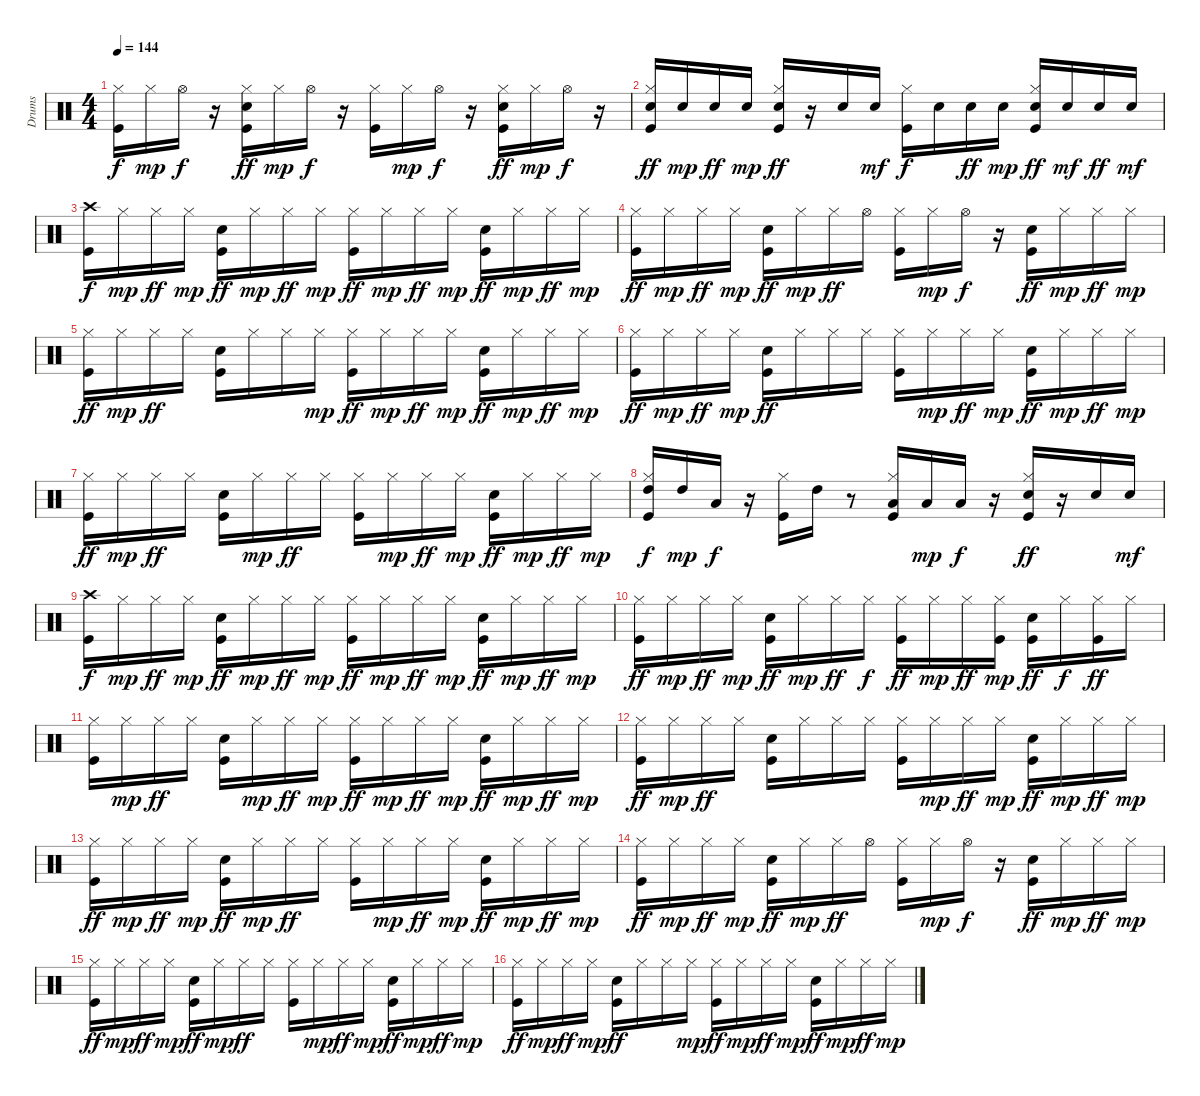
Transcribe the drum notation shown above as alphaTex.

\track ("Drums" "Drums") {instrument percussion}
\staff {score}
\articulation defaults
\ts (4 4)
\tempo 144
\clef neutral
\ks c
("Kick (hit)" "Hi-Hat (closed)").16{dy f} "Hi-Hat (closed)".16{dy mp} "Hi-Hat (open)".16{dy f} r.16 ("Kick (hit)" "Snare (hit) 2" "Hi-Hat (closed)").16{dy ff} "Hi-Hat (closed)".16{dy mp} "Hi-Hat (open)".16{dy f} r.16 ("Kick (hit)" "Hi-Hat (closed)").16 "Hi-Hat (closed)".16{dy mp} "Hi-Hat (open)".16{dy f} r.16 ("Kick (hit)" "Snare (hit) 2" "Hi-Hat (closed)").16{dy ff} "Hi-Hat (closed)".16{dy mp} "Hi-Hat (open)".16{dy f} r.16 |
("Kick (hit)" "Snare (hit) 2" "Hi-Hat (closed)").16{dy ff} "Snare (hit) 2".16{dy mp} "Snare (hit) 2".16{dy ff} "Snare (hit) 2".16{dy mp} ("Kick (hit)" "Snare (hit) 2" "Hi-Hat (closed)").16{dy ff} r.16 "Snare (hit) 2".16 "Snare (hit) 2".16{dy mf} ("Kick (hit)" "Hi-Hat (closed)").16{dy f} "Snare (hit) 2".16 "Snare (hit) 2".16{dy ff} "Snare (hit) 2".16{dy mp} ("Kick (hit)" "Snare (hit) 2" "Hi-Hat (closed)").16{dy ff} "Snare (hit) 2".16{dy mf} "Snare (hit) 2".16{dy ff} "Snare (hit) 2".16{dy mf} |
("Kick (hit)" "Crash high (hit)").16{dy f} "Hi-Hat (closed)".16{dy mp} "Hi-Hat (closed)".16{dy ff} "Hi-Hat (closed)".16{dy mp} ("Kick (hit)" "Snare (hit) 2").16{dy ff} "Hi-Hat (closed)".16{dy mp} "Hi-Hat (closed)".16{dy ff} "Hi-Hat (closed)".16{dy mp} ("Kick (hit)" "Hi-Hat (closed)").16{dy ff} "Hi-Hat (closed)".16{dy mp} "Hi-Hat (closed)".16{dy ff} "Hi-Hat (closed)".16{dy mp} ("Kick (hit)" "Snare (hit) 2").16{dy ff} "Hi-Hat (closed)".16{dy mp} "Hi-Hat (closed)".16{dy ff} "Hi-Hat (closed)".16{dy mp} |
("Kick (hit)" "Hi-Hat (closed)").16{dy ff} "Hi-Hat (closed)".16{dy mp} "Hi-Hat (closed)".16{dy ff} "Hi-Hat (closed)".16{dy mp} ("Kick (hit)" "Snare (hit) 2").16{dy ff} "Hi-Hat (closed)".16{dy mp} "Hi-Hat (closed)".16{dy ff} "Hi-Hat (open)".16 ("Kick (hit)" "Hi-Hat (closed)").16 "Hi-Hat (closed)".16{dy mp} "Hi-Hat (open)".16{dy f} r.16 ("Kick (hit)" "Snare (hit) 2").16{dy ff} "Hi-Hat (closed)".16{dy mp} "Hi-Hat (closed)".16{dy ff} "Hi-Hat (closed)".16{dy mp} |
("Kick (hit)" "Hi-Hat (closed)").16{dy ff} "Hi-Hat (closed)".16{dy mp} "Hi-Hat (closed)".16{dy ff} "Hi-Hat (closed)".16 ("Kick (hit)" "Snare (hit) 2").16 "Hi-Hat (closed)".16 "Hi-Hat (closed)".16 "Hi-Hat (closed)".16{dy mp} ("Kick (hit)" "Hi-Hat (closed)").16{dy ff} "Hi-Hat (closed)".16{dy mp} "Hi-Hat (closed)".16{dy ff} "Hi-Hat (closed)".16{dy mp} ("Kick (hit)" "Snare (hit) 2").16{dy ff} "Hi-Hat (closed)".16{dy mp} "Hi-Hat (closed)".16{dy ff} "Hi-Hat (closed)".16{dy mp} |
("Kick (hit)" "Hi-Hat (closed)").16{dy ff} "Hi-Hat (closed)".16{dy mp} "Hi-Hat (closed)".16{dy ff} "Hi-Hat (closed)".16{dy mp} ("Kick (hit)" "Snare (hit) 2").16{dy ff} "Hi-Hat (closed)".16 "Hi-Hat (closed)".16 "Hi-Hat (closed)".16 ("Kick (hit)" "Hi-Hat (closed)").16 "Hi-Hat (closed)".16{dy mp} "Hi-Hat (closed)".16{dy ff} "Hi-Hat (closed)".16{dy mp} ("Kick (hit)" "Snare (hit) 2").16{dy ff} "Hi-Hat (closed)".16{dy mp} "Hi-Hat (closed)".16{dy ff} "Hi-Hat (closed)".16{dy mp} |
("Kick (hit)" "Hi-Hat (closed)").16{dy ff} "Hi-Hat (closed)".16{dy mp} "Hi-Hat (closed)".16{dy ff} "Hi-Hat (closed)".16 ("Kick (hit)" "Snare (hit) 2").16 "Hi-Hat (closed)".16{dy mp} "Hi-Hat (closed)".16{dy ff} "Hi-Hat (closed)".16 ("Kick (hit)" "Hi-Hat (closed)").16 "Hi-Hat (closed)".16{dy mp} "Hi-Hat (closed)".16{dy ff} "Hi-Hat (closed)".16{dy mp} ("Kick (hit)" "Snare (hit) 2").16{dy ff} "Hi-Hat (closed)".16{dy mp} "Hi-Hat (closed)".16{dy ff} "Hi-Hat (closed)".16{dy mp} |
("Kick (hit)" "Hi-Hat (closed)" "High Tom (hit)").16{dy f} "High Tom (hit)".16{dy mp} "Low Tom (hit)".16{dy f} r.16 ("Kick (hit)" "Hi-Hat (closed)").16 "High Tom (hit)".16 r.8 ("Kick (hit)" "Hi-Hat (closed)" "Low Tom (hit)").16 "Low Tom (hit)".16{dy mp} "Low Floor Tom (hit)".16{dy f} r.16 ("Kick (hit)" "Snare (hit) 2" "Hi-Hat (closed)").16{dy ff} r.16 "Snare (hit) 2".16 "Snare (hit) 2".16{dy mf} |
("Kick (hit)" "Crash high (hit)").16{dy f} "Hi-Hat (closed)".16{dy mp} "Hi-Hat (closed)".16{dy ff} "Hi-Hat (closed)".16{dy mp} ("Kick (hit)" "Snare (hit) 2").16{dy ff} "Hi-Hat (closed)".16{dy mp} "Hi-Hat (closed)".16{dy ff} "Hi-Hat (closed)".16{dy mp} ("Kick (hit)" "Hi-Hat (closed)").16{dy ff} "Hi-Hat (closed)".16{dy mp} "Hi-Hat (closed)".16{dy ff} "Hi-Hat (closed)".16{dy mp} ("Kick (hit)" "Snare (hit) 2").16{dy ff} "Hi-Hat (closed)".16{dy mp} "Hi-Hat (closed)".16{dy ff} "Hi-Hat (closed)".16{dy mp} |
("Kick (hit)" "Hi-Hat (closed)").16{dy ff} "Hi-Hat (closed)".16{dy mp} "Hi-Hat (closed)".16{dy ff} "Hi-Hat (closed)".16{dy mp} ("Kick (hit)" "Snare (hit) 2").16{dy ff} "Hi-Hat (closed)".16{dy mp} "Hi-Hat (closed)".16{dy ff} "Hi-Hat (closed)".16{dy f} ("Kick (hit)" "Hi-Hat (closed)").16{dy ff} "Hi-Hat (closed)".16{dy mp} "Hi-Hat (closed)".16{dy ff} ("Kick (hit)" "Hi-Hat (closed)").16{dy mp} ("Kick (hit)" "Snare (hit) 2").16{dy ff} "Hi-Hat (closed)".16{dy f} ("Kick (hit)" "Hi-Hat (closed)").16{dy ff} "Hi-Hat (closed)".16 |
("Kick (hit)" "Hi-Hat (closed)").16 "Hi-Hat (closed)".16{dy mp} "Hi-Hat (closed)".16{dy ff} "Hi-Hat (closed)".16 ("Kick (hit)" "Snare (hit) 2").16 "Hi-Hat (closed)".16{dy mp} "Hi-Hat (closed)".16{dy ff} "Hi-Hat (closed)".16{dy mp} ("Kick (hit)" "Hi-Hat (closed)").16{dy ff} "Hi-Hat (closed)".16{dy mp} "Hi-Hat (closed)".16{dy ff} "Hi-Hat (closed)".16{dy mp} ("Kick (hit)" "Snare (hit) 2").16{dy ff} "Hi-Hat (closed)".16{dy mp} "Hi-Hat (closed)".16{dy ff} "Hi-Hat (closed)".16{dy mp} |
("Kick (hit)" "Hi-Hat (closed)").16{dy ff} "Hi-Hat (closed)".16{dy mp} "Hi-Hat (closed)".16{dy ff} "Hi-Hat (closed)".16 ("Kick (hit)" "Snare (hit) 2").16 "Hi-Hat (closed)".16 "Hi-Hat (closed)".16 "Hi-Hat (closed)".16 ("Kick (hit)" "Hi-Hat (closed)").16 "Hi-Hat (closed)".16{dy mp} "Hi-Hat (closed)".16{dy ff} "Hi-Hat (closed)".16{dy mp} ("Kick (hit)" "Snare (hit) 2").16{dy ff} "Hi-Hat (closed)".16{dy mp} "Hi-Hat (closed)".16{dy ff} "Hi-Hat (closed)".16{dy mp} |
("Kick (hit)" "Hi-Hat (closed)").16{dy ff} "Hi-Hat (closed)".16{dy mp} "Hi-Hat (closed)".16{dy ff} "Hi-Hat (closed)".16{dy mp} ("Kick (hit)" "Snare (hit) 2").16{dy ff} "Hi-Hat (closed)".16{dy mp} "Hi-Hat (closed)".16{dy ff} "Hi-Hat (closed)".16 ("Kick (hit)" "Hi-Hat (closed)").16 "Hi-Hat (closed)".16{dy mp} "Hi-Hat (closed)".16{dy ff} "Hi-Hat (closed)".16{dy mp} ("Kick (hit)" "Snare (hit) 2").16{dy ff} "Hi-Hat (closed)".16{dy mp} "Hi-Hat (closed)".16{dy ff} "Hi-Hat (closed)".16{dy mp} |
("Kick (hit)" "Hi-Hat (closed)").16{dy ff} "Hi-Hat (closed)".16{dy mp} "Hi-Hat (closed)".16{dy ff} "Hi-Hat (closed)".16{dy mp} ("Kick (hit)" "Snare (hit) 2").16{dy ff} "Hi-Hat (closed)".16{dy mp} "Hi-Hat (closed)".16{dy ff} "Hi-Hat (open)".16 ("Kick (hit)" "Hi-Hat (closed)").16 "Hi-Hat (closed)".16{dy mp} "Hi-Hat (open)".16{dy f} r.16 ("Kick (hit)" "Snare (hit) 2").16{dy ff} "Hi-Hat (closed)".16{dy mp} "Hi-Hat (closed)".16{dy ff} "Hi-Hat (closed)".16{dy mp} |
("Kick (hit)" "Hi-Hat (closed)").16{dy ff} "Hi-Hat (closed)".16{dy mp} "Hi-Hat (closed)".16{dy ff} "Hi-Hat (closed)".16{dy mp} ("Kick (hit)" "Snare (hit) 2").16{dy ff} "Hi-Hat (closed)".16{dy mp} "Hi-Hat (closed)".16{dy ff} "Hi-Hat (closed)".16 ("Kick (hit)" "Hi-Hat (closed)").16 "Hi-Hat (closed)".16{dy mp} "Hi-Hat (closed)".16{dy ff} "Hi-Hat (closed)".16{dy mp} ("Kick (hit)" "Snare (hit) 2").16{dy ff} "Hi-Hat (closed)".16{dy mp} "Hi-Hat (closed)".16{dy ff} "Hi-Hat (closed)".16{dy mp} |
("Kick (hit)" "Hi-Hat (closed)").16{dy ff} "Hi-Hat (closed)".16{dy mp} "Hi-Hat (closed)".16{dy ff} "Hi-Hat (closed)".16{dy mp} ("Kick (hit)" "Snare (hit) 2").16{dy ff} "Hi-Hat (closed)".16 "Hi-Hat (closed)".16 "Hi-Hat (closed)".16{dy mp} ("Kick (hit)" "Hi-Hat (closed)").16{dy ff} "Hi-Hat (closed)".16{dy mp} "Hi-Hat (closed)".16{dy ff} "Hi-Hat (closed)".16{dy mp} ("Kick (hit)" "Snare (hit) 2").16{dy ff} "Hi-Hat (closed)".16{dy mp} "Hi-Hat (closed)".16{dy ff} "Hi-Hat (closed)".16{dy mp}
